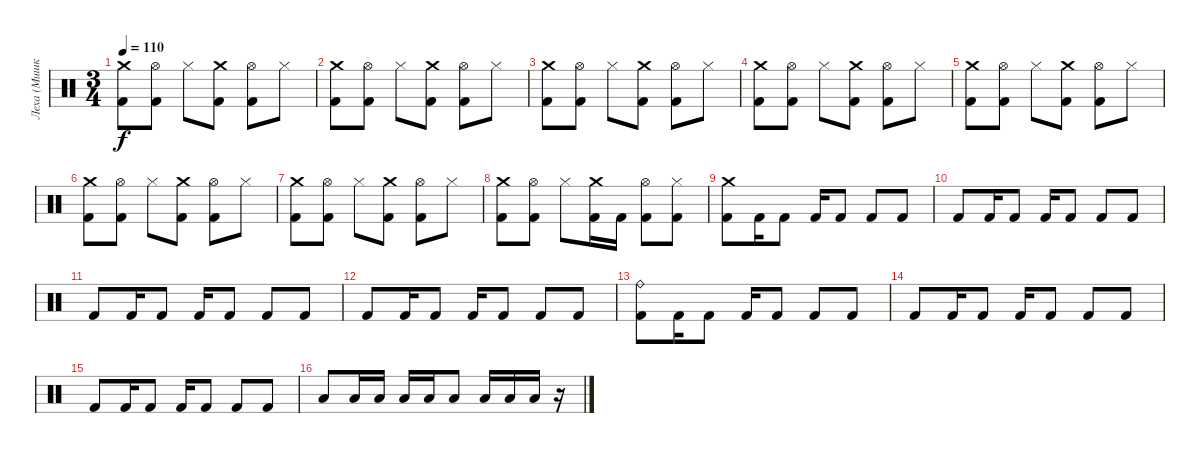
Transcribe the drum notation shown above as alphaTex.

\track ("Леха (Мишка Гами)" "Леха (Мишк") {instrument percussion}
\staff {score}
\articulation defaults
\ts (3 4)
\tempo 110
\clef neutral
\ks c
("Crash medium (hit)" "Kick (hit) 2").8{dy f} ("Hi-Hat (open)" "Kick (hit) 2").8 "Hi-Hat (closed)".8 ("Crash medium (hit)" "Kick (hit) 2").8 ("Hi-Hat (open)" "Kick (hit) 2").8 "Hi-Hat (closed)".8 |
("Crash medium (hit)" "Kick (hit) 2").8 ("Hi-Hat (open)" "Kick (hit) 2").8 "Hi-Hat (closed)".8 ("Crash medium (hit)" "Kick (hit) 2").8 ("Hi-Hat (open)" "Kick (hit) 2").8 "Hi-Hat (closed)".8 |
("Crash medium (hit)" "Kick (hit) 2").8 ("Hi-Hat (open)" "Kick (hit) 2").8 "Hi-Hat (closed)".8 ("Crash medium (hit)" "Kick (hit) 2").8 ("Hi-Hat (open)" "Kick (hit) 2").8 "Hi-Hat (closed)".8 |
("Crash medium (hit)" "Kick (hit) 2").8 ("Hi-Hat (open)" "Kick (hit) 2").8 "Hi-Hat (closed)".8 ("Crash medium (hit)" "Kick (hit) 2").8 ("Hi-Hat (open)" "Kick (hit) 2").8 "Hi-Hat (closed)".8 |
("Crash medium (hit)" "Kick (hit) 2").8 ("Hi-Hat (open)" "Kick (hit) 2").8 "Hi-Hat (closed)".8 ("Crash medium (hit)" "Kick (hit) 2").8 ("Hi-Hat (open)" "Kick (hit) 2").8 "Hi-Hat (closed)".8 |
("Crash medium (hit)" "Kick (hit) 2").8 ("Hi-Hat (open)" "Kick (hit) 2").8 "Hi-Hat (closed)".8 ("Crash medium (hit)" "Kick (hit) 2").8 ("Hi-Hat (open)" "Kick (hit) 2").8 "Hi-Hat (closed)".8 |
("Crash medium (hit)" "Kick (hit) 2").8 ("Hi-Hat (open)" "Kick (hit) 2").8 "Hi-Hat (closed)".8 ("Crash medium (hit)" "Kick (hit) 2").8 ("Hi-Hat (open)" "Kick (hit) 2").8 "Hi-Hat (closed)".8 |
("Crash medium (hit)" "Kick (hit) 2").8 ("Hi-Hat (open)" "Kick (hit) 2").8 "Hi-Hat (closed)".8 ("Crash medium (hit)" "Kick (hit) 2").16 "Kick (hit) 2".16 ("Hi-Hat (open)" "Kick (hit) 2").8 ("Hi-Hat (closed)" "Kick (hit) 2").8 |
("Crash medium (hit)" "Kick (hit) 2").8 "Kick (hit) 2".16 "Kick (hit) 2".8 "Kick (hit) 2".16 "Kick (hit) 2".8 "Kick (hit) 2".8 "Kick (hit) 2".8 |
"Kick (hit) 2".8 "Kick (hit) 2".16 "Kick (hit) 2".8 "Kick (hit) 2".16 "Kick (hit) 2".8 "Kick (hit) 2".8 "Kick (hit) 2".8 |
"Kick (hit) 2".8 "Kick (hit) 2".16 "Kick (hit) 2".8 "Kick (hit) 2".16 "Kick (hit) 2".8 "Kick (hit) 2".8 "Kick (hit) 2".8 |
"Kick (hit) 2".8 "Kick (hit) 2".16 "Kick (hit) 2".8 "Kick (hit) 2".16 "Kick (hit) 2".8 "Kick (hit) 2".8 "Kick (hit) 2".8 |
("Ride (bell)" "Kick (hit) 2").8 "Kick (hit) 2".16 "Kick (hit) 2".8 "Kick (hit) 2".16 "Kick (hit) 2".8 "Kick (hit) 2".8 "Kick (hit) 2".8 |
"Kick (hit) 2".8 "Kick (hit) 2".16 "Kick (hit) 2".8 "Kick (hit) 2".16 "Kick (hit) 2".8 "Kick (hit) 2".8 "Kick (hit) 2".8 |
"Kick (hit) 2".8 "Kick (hit) 2".16 "Kick (hit) 2".8 "Kick (hit) 2".16 "Kick (hit) 2".8 "Kick (hit) 2".8 "Kick (hit) 2".8 |
"Low Tom (hit)".8 "Low Tom (hit)".16 "Low Tom (hit)".16 "Low Tom (hit)".16 "Low Tom (hit)".16 "Low Tom (hit)".8 "Low Tom (hit)".16 "Low Tom (hit)".16 "Low Tom (hit)".16 r.16
